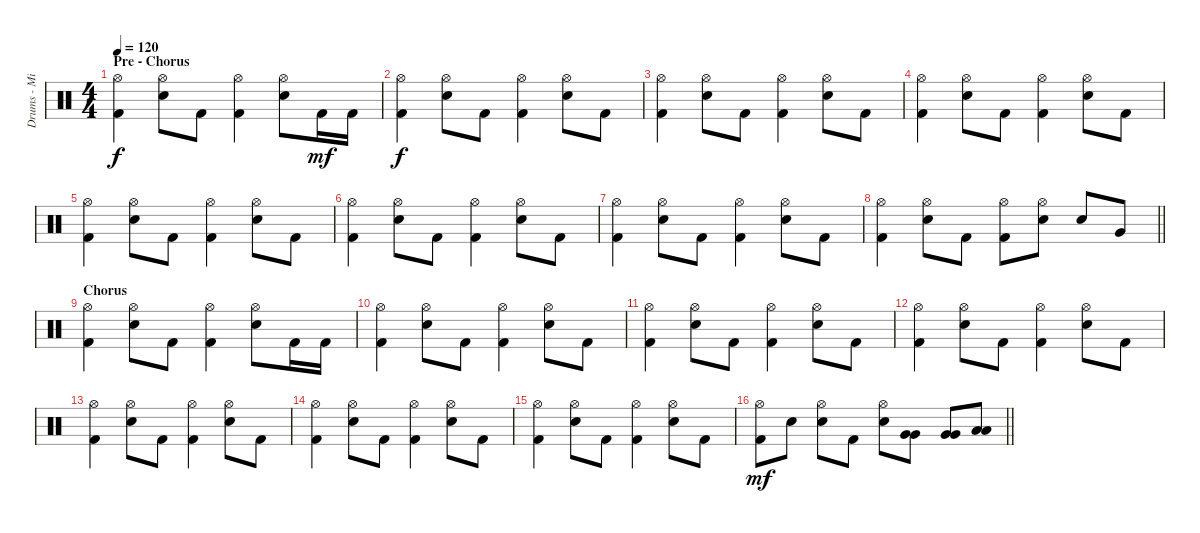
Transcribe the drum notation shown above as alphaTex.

\track ("Drums - Mikko" "Drums - Mi") {instrument percussion}
\staff {score}
\articulation defaults
\ts (4 4)
\section ("" "Pre - Chorus")
\tempo 120
\clef neutral
\ks c
("Hi-Hat (open)" "Kick (hit) 2").4{dy f volume 14} ("Hi-Hat (open)" "Snare (hit) 2").8 "Kick (hit) 2".8 ("Hi-Hat (open)" "Kick (hit) 2").4 ("Hi-Hat (open)" "Snare (hit) 2").8 "Kick (hit) 2".16{dy mf} "Kick (hit) 2".16 |
("Hi-Hat (open)" "Kick (hit) 2").4{dy f} ("Hi-Hat (open)" "Snare (hit) 2").8 "Kick (hit) 2".8 ("Hi-Hat (open)" "Kick (hit) 2").4 ("Hi-Hat (open)" "Snare (hit) 2").8 "Kick (hit) 2".8 |
("Hi-Hat (open)" "Kick (hit) 2").4 ("Hi-Hat (open)" "Snare (hit) 2").8 "Kick (hit) 2".8 ("Hi-Hat (open)" "Kick (hit) 2").4 ("Hi-Hat (open)" "Snare (hit) 2").8 "Kick (hit) 2".8 |
("Hi-Hat (open)" "Kick (hit) 2").4 ("Hi-Hat (open)" "Snare (hit) 2").8 "Kick (hit) 2".8 ("Hi-Hat (open)" "Kick (hit) 2").4 ("Hi-Hat (open)" "Snare (hit) 2").8 "Kick (hit) 2".8 |
("Hi-Hat (open)" "Kick (hit) 2").4 ("Hi-Hat (open)" "Snare (hit) 2").8 "Kick (hit) 2".8 ("Hi-Hat (open)" "Kick (hit) 2").4 ("Hi-Hat (open)" "Snare (hit) 2").8 "Kick (hit) 2".8 |
("Hi-Hat (open)" "Kick (hit) 2").4 ("Hi-Hat (open)" "Snare (hit) 2").8 "Kick (hit) 2".8 ("Hi-Hat (open)" "Kick (hit) 2").4 ("Hi-Hat (open)" "Snare (hit) 2").8 "Kick (hit) 2".8 |
("Hi-Hat (open)" "Kick (hit) 2").4 ("Hi-Hat (open)" "Snare (hit) 2").8 "Kick (hit) 2".8 ("Hi-Hat (open)" "Kick (hit) 2").4 ("Hi-Hat (open)" "Snare (hit) 2").8 "Kick (hit) 2".8 |
\barLineRight lightlight
("Hi-Hat (open)" "Kick (hit) 2").4 ("Hi-Hat (open)" "Snare (hit) 2").8 "Kick (hit) 2".8 ("Hi-Hat (open)" "Kick (hit) 2").8 ("Hi-Hat (open)" "Snare (hit) 2").8 "Snare (hit) 2".8 "Very Low Tom (hit)".8 |
\section ("" "Chorus ")
("Hi-Hat (open)" "Kick (hit) 2").4 ("Hi-Hat (open)" "Snare (hit) 2").8 "Kick (hit) 2".8 ("Hi-Hat (open)" "Kick (hit) 2").4 ("Hi-Hat (open)" "Snare (hit) 2").8 "Kick (hit) 2".16 "Kick (hit) 2".16 |
("Hi-Hat (open)" "Kick (hit) 2").4 ("Hi-Hat (open)" "Snare (hit) 2").8 "Kick (hit) 2".8 ("Hi-Hat (open)" "Kick (hit) 2").4 ("Hi-Hat (open)" "Snare (hit) 2").8 "Kick (hit) 2".8 |
("Hi-Hat (open)" "Kick (hit) 2").4 ("Hi-Hat (open)" "Snare (hit) 2").8 "Kick (hit) 2".8 ("Hi-Hat (open)" "Kick (hit) 2").4 ("Hi-Hat (open)" "Snare (hit) 2").8 "Kick (hit) 2".8 |
("Hi-Hat (open)" "Kick (hit) 2").4 ("Hi-Hat (open)" "Snare (hit) 2").8 "Kick (hit) 2".8 ("Hi-Hat (open)" "Kick (hit) 2").4 ("Hi-Hat (open)" "Snare (hit) 2").8 "Kick (hit) 2".8 |
("Hi-Hat (open)" "Kick (hit) 2").4 ("Hi-Hat (open)" "Snare (hit) 2").8 "Kick (hit) 2".8 ("Hi-Hat (open)" "Kick (hit) 2").4 ("Hi-Hat (open)" "Snare (hit) 2").8 "Kick (hit) 2".8 |
("Hi-Hat (open)" "Kick (hit) 2").4 ("Hi-Hat (open)" "Snare (hit) 2").8 "Kick (hit) 2".8 ("Hi-Hat (open)" "Kick (hit) 2").4 ("Hi-Hat (open)" "Snare (hit) 2").8 "Kick (hit) 2".8 |
("Hi-Hat (open)" "Kick (hit) 2").4 ("Hi-Hat (open)" "Snare (hit) 2").8 "Kick (hit) 2".8 ("Hi-Hat (open)" "Kick (hit) 2").4 ("Hi-Hat (open)" "Snare (hit) 2").8 "Kick (hit) 2".8 |
\barLineRight lightlight
("Hi-Hat (open)" "Kick (hit) 2").8{dy mf volume 13} "Snare (hit) 2".8 ("Hi-Hat (open)" "Snare (hit) 2").8 "Kick (hit) 2".8 ("Hi-Hat (open)" "Snare (hit) 2").8 ("Very Low Tom (hit)" "Very Low Tom (hit)").8 ("Very Low Tom (hit)" "Very Low Tom (hit)").8 ("Low Floor Tom (hit)" "Low Floor Tom (hit)").8
